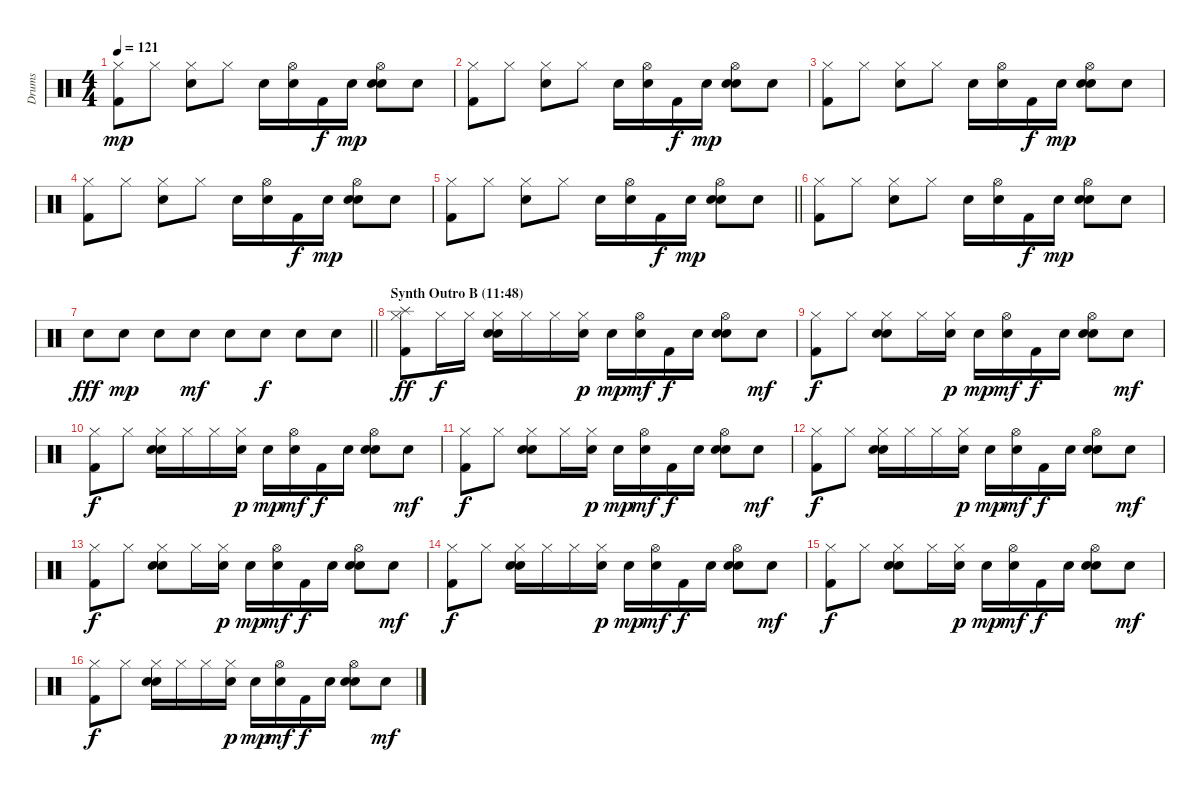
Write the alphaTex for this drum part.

\track ("Drums" "Drums") {instrument percussion}
\staff {score}
\articulation defaults
\ts (4 4)
\tempo 121
\clef neutral
\ks c
("Hi-Hat (closed)" "Kick (hit) 2").8{dy mp} "Hi-Hat (closed)".8 ("Hi-Hat (closed)" "Hand Clap (hit)").8 "Hi-Hat (closed)".8 "Electric Snare (hit)".16 ("Hi-Hat (open)" "Electric Snare (hit)").16 "Kick (hit) 2".16{dy f} "Electric Snare (hit)".16{dy mp} ("Hi-Hat (open)" "Electric Snare (hit)" "Hand Clap (hit)").8 "Electric Snare (hit)".8 |
("Hi-Hat (closed)" "Kick (hit) 2").8 "Hi-Hat (closed)".8 ("Hi-Hat (closed)" "Hand Clap (hit)").8 "Hi-Hat (closed)".8 "Electric Snare (hit)".16 ("Hi-Hat (open)" "Electric Snare (hit)").16 "Kick (hit) 2".16{dy f} "Electric Snare (hit)".16{dy mp} ("Hi-Hat (open)" "Electric Snare (hit)" "Hand Clap (hit)").8 "Electric Snare (hit)".8 |
("Hi-Hat (closed)" "Kick (hit) 2").8 "Hi-Hat (closed)".8 ("Hi-Hat (closed)" "Hand Clap (hit)").8 "Hi-Hat (closed)".8 "Electric Snare (hit)".16 ("Hi-Hat (open)" "Electric Snare (hit)").16 "Kick (hit) 2".16{dy f} "Electric Snare (hit)".16{dy mp} ("Hi-Hat (open)" "Electric Snare (hit)" "Hand Clap (hit)").8 "Electric Snare (hit)".8 |
("Hi-Hat (closed)" "Kick (hit) 2").8 "Hi-Hat (closed)".8 ("Hi-Hat (closed)" "Hand Clap (hit)").8 "Hi-Hat (closed)".8 "Electric Snare (hit)".16 ("Hi-Hat (open)" "Electric Snare (hit)").16 "Kick (hit) 2".16{dy f} "Electric Snare (hit)".16{dy mp} ("Hi-Hat (open)" "Electric Snare (hit)" "Hand Clap (hit)").8 "Electric Snare (hit)".8 |
\barLineRight lightlight
("Hi-Hat (closed)" "Kick (hit) 2").8 "Hi-Hat (closed)".8 ("Hi-Hat (closed)" "Hand Clap (hit)").8 "Hi-Hat (closed)".8 "Electric Snare (hit)".16 ("Hi-Hat (open)" "Electric Snare (hit)").16 "Kick (hit) 2".16{dy f} "Electric Snare (hit)".16{dy mp} ("Hi-Hat (open)" "Electric Snare (hit)" "Hand Clap (hit)").8 "Electric Snare (hit)".8 |
("Hi-Hat (closed)" "Kick (hit) 2").8 "Hi-Hat (closed)".8 ("Hi-Hat (closed)" "Hand Clap (hit)").8 "Hi-Hat (closed)".8 "Electric Snare (hit)".16 ("Hi-Hat (open)" "Electric Snare (hit)").16 "Kick (hit) 2".16{dy f} "Electric Snare (hit)".16{dy mp} ("Hi-Hat (open)" "Electric Snare (hit)" "Hand Clap (hit)").8 "Electric Snare (hit)".8 |
\barLineRight lightlight "Electric Snare (hit)".8{dy fff} "Electric Snare (hit)".8{dy mp} "Electric Snare (hit)".8 "Electric Snare (hit)".8{dy mf} "Electric Snare (hit)".8 "Electric Snare (hit)".8{dy f} "Electric Snare (hit)".8 "Electric Snare (hit)".8
|
\section ("" "Synth Outro B (11:48)")
("Splash (hit)" "Hi-Hat (closed)" "Kick (hit) 2").8{dy ff volume 14} "Hi-Hat (closed)".16{dy f} "Hi-Hat (closed)".16 ("Hi-Hat (closed)" "Electric Snare (hit)" "Hand Clap (hit)").16 "Hi-Hat (closed)".16 "Hi-Hat (closed)".16 ("Hi-Hat (closed)" "Electric Snare (hit)").16{dy p} "Electric Snare (hit)".16{dy mp} ("Hi-Hat (open)" "Electric Snare (hit)").16{dy mf} "Kick (hit) 2".16{dy f} "Electric Snare (hit)".16 ("Hi-Hat (open)" "Electric Snare (hit)" "Hand Clap (hit)").8 "Electric Snare (hit)".8{dy mf} |
("Hi-Hat (closed)" "Kick (hit) 2").8{dy f} "Hi-Hat (closed)".8 ("Hi-Hat (closed)" "Electric Snare (hit)" "Hand Clap (hit)").8 "Hi-Hat (closed)".16 ("Hi-Hat (closed)" "Electric Snare (hit)").16{dy p} "Electric Snare (hit)".16{dy mp} ("Hi-Hat (open)" "Electric Snare (hit)").16{dy mf} "Kick (hit) 2".16{dy f} "Electric Snare (hit)".16 ("Hi-Hat (open)" "Electric Snare (hit)" "Hand Clap (hit)").8 "Electric Snare (hit)".8{dy mf} |
("Hi-Hat (closed)" "Kick (hit) 2").8{dy f} "Hi-Hat (closed)".8 ("Hi-Hat (closed)" "Electric Snare (hit)" "Hand Clap (hit)").16 "Hi-Hat (closed)".16 "Hi-Hat (closed)".16 ("Hi-Hat (closed)" "Electric Snare (hit)").16{dy p} "Electric Snare (hit)".16{dy mp} ("Hi-Hat (open)" "Electric Snare (hit)").16{dy mf} "Kick (hit) 2".16{dy f} "Electric Snare (hit)".16 ("Hi-Hat (open)" "Electric Snare (hit)" "Hand Clap (hit)").8 "Electric Snare (hit)".8{dy mf} |
("Hi-Hat (closed)" "Kick (hit) 2").8{dy f} "Hi-Hat (closed)".8 ("Hi-Hat (closed)" "Electric Snare (hit)" "Hand Clap (hit)").8 "Hi-Hat (closed)".16 ("Hi-Hat (closed)" "Electric Snare (hit)").16{dy p} "Electric Snare (hit)".16{dy mp} ("Hi-Hat (open)" "Electric Snare (hit)").16{dy mf} "Kick (hit) 2".16{dy f} "Electric Snare (hit)".16 ("Hi-Hat (open)" "Electric Snare (hit)" "Hand Clap (hit)").8 "Electric Snare (hit)".8{dy mf} |
("Hi-Hat (closed)" "Kick (hit) 2").8{dy f} "Hi-Hat (closed)".8 ("Hi-Hat (closed)" "Electric Snare (hit)" "Hand Clap (hit)").16 "Hi-Hat (closed)".16 "Hi-Hat (closed)".16 ("Hi-Hat (closed)" "Electric Snare (hit)").16{dy p} "Electric Snare (hit)".16{dy mp} ("Hi-Hat (open)" "Electric Snare (hit)").16{dy mf} "Kick (hit) 2".16{dy f} "Electric Snare (hit)".16 ("Hi-Hat (open)" "Electric Snare (hit)" "Hand Clap (hit)").8 "Electric Snare (hit)".8{dy mf} |
("Hi-Hat (closed)" "Kick (hit) 2").8{dy f} "Hi-Hat (closed)".8 ("Hi-Hat (closed)" "Electric Snare (hit)" "Hand Clap (hit)").8 "Hi-Hat (closed)".16 ("Hi-Hat (closed)" "Electric Snare (hit)").16{dy p} "Electric Snare (hit)".16{dy mp} ("Hi-Hat (open)" "Electric Snare (hit)").16{dy mf} "Kick (hit) 2".16{dy f} "Electric Snare (hit)".16 ("Hi-Hat (open)" "Electric Snare (hit)" "Hand Clap (hit)").8 "Electric Snare (hit)".8{dy mf} |
("Hi-Hat (closed)" "Kick (hit) 2").8{dy f} "Hi-Hat (closed)".8 ("Hi-Hat (closed)" "Electric Snare (hit)" "Hand Clap (hit)").16 "Hi-Hat (closed)".16 "Hi-Hat (closed)".16 ("Hi-Hat (closed)" "Electric Snare (hit)").16{dy p} "Electric Snare (hit)".16{dy mp} ("Hi-Hat (open)" "Electric Snare (hit)").16{dy mf} "Kick (hit) 2".16{dy f} "Electric Snare (hit)".16 ("Hi-Hat (open)" "Electric Snare (hit)" "Hand Clap (hit)").8 "Electric Snare (hit)".8{dy mf} |
("Hi-Hat (closed)" "Kick (hit) 2").8{dy f} "Hi-Hat (closed)".8 ("Hi-Hat (closed)" "Electric Snare (hit)" "Hand Clap (hit)").8 "Hi-Hat (closed)".16 ("Hi-Hat (closed)" "Electric Snare (hit)").16{dy p} "Electric Snare (hit)".16{dy mp} ("Hi-Hat (open)" "Electric Snare (hit)").16{dy mf} "Kick (hit) 2".16{dy f} "Electric Snare (hit)".16 ("Hi-Hat (open)" "Electric Snare (hit)" "Hand Clap (hit)").8 "Electric Snare (hit)".8{dy mf} |
("Hi-Hat (closed)" "Kick (hit) 2").8{dy f} "Hi-Hat (closed)".8 ("Hi-Hat (closed)" "Electric Snare (hit)" "Hand Clap (hit)").16 "Hi-Hat (closed)".16 "Hi-Hat (closed)".16 ("Hi-Hat (closed)" "Electric Snare (hit)").16{dy p} "Electric Snare (hit)".16{dy mp} ("Hi-Hat (open)" "Electric Snare (hit)").16{dy mf} "Kick (hit) 2".16{dy f} "Electric Snare (hit)".16 ("Hi-Hat (open)" "Electric Snare (hit)" "Hand Clap (hit)").8 "Electric Snare (hit)".8{dy mf}
